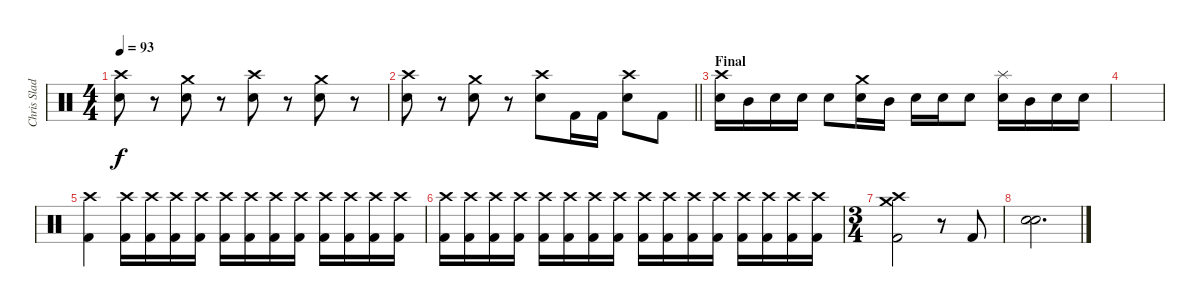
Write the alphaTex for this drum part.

\track ("Chris Slade" "Chris Slad") {instrument percussion}
\staff {score}
\articulation defaults
\ts (4 4)
\tempo 93
\clef neutral
\ks c
("Crash high (hit)" "Snare (hit) 2").8{dy f} r.8 ("Crash medium (hit)" "Snare (hit) 2").8 r.8 ("Crash high (hit)" "Snare (hit) 2").8 r.8 ("Crash medium (hit)" "Snare (hit) 2").8 r.8 |
\barLineRight lightlight
("Crash high (hit)" "Snare (hit) 2").8 r.8 ("Crash medium (hit)" "Snare (hit) 2").8 r.8 ("Crash high (hit)" "Snare (hit) 2").8 "Kick (hit) 2".16 "Kick (hit) 2".16 ("Crash high (hit)" "Snare (hit) 2").8 "Kick (hit) 2".8 |
\section ("" "Final")
("Crash high (hit)" "Snare (hit) 2").16 "Mid Tom (hit)".16 "Snare (hit) 2".16 "Snare (hit) 2".16 "Snare (hit) 2".8 ("Crash medium (hit)" "Snare (hit) 2").16 "Mid Tom (hit)".16 "Snare (hit) 2".16 "Snare (hit) 2".16 "Snare (hit) 2".8 ("Splash (hit)" "Snare (hit) 2").16 "Mid Tom (hit)".16 "Snare (hit) 2".16 "Snare (hit) 2".16 |
|
("Kick (hit) 2" "Crash high (hit)").4 ("Kick (hit) 2" "Crash high (hit)").16 ("Kick (hit) 2" "Crash high (hit)").16 ("Kick (hit) 2" "Crash high (hit)").16 ("Kick (hit) 2" "Crash high (hit)").16 ("Kick (hit) 2" "Crash high (hit)").16 ("Kick (hit) 2" "Crash high (hit)").16 ("Kick (hit) 2" "Crash high (hit)").16 ("Kick (hit) 2" "Crash high (hit)").16 ("Kick (hit) 2" "Crash high (hit)").16 ("Kick (hit) 2" "Crash high (hit)").16 ("Kick (hit) 2" "Crash high (hit)").16 ("Kick (hit) 2" "Crash high (hit)").16 |
("Kick (hit) 2" "Crash high (hit)").16 ("Kick (hit) 2" "Crash high (hit)").16 ("Kick (hit) 2" "Crash high (hit)").16 ("Kick (hit) 2" "Crash high (hit)").16 ("Kick (hit) 2" "Crash high (hit)").16 ("Kick (hit) 2" "Crash high (hit)").16 ("Kick (hit) 2" "Crash high (hit)").16 ("Kick (hit) 2" "Crash high (hit)").16 ("Kick (hit) 2" "Crash high (hit)").16 ("Kick (hit) 2" "Crash high (hit)").16 ("Kick (hit) 2" "Crash high (hit)").16 ("Kick (hit) 2" "Crash high (hit)").16 ("Kick (hit) 2" "Crash high (hit)").16 ("Kick (hit) 2" "Crash high (hit)").16 ("Kick (hit) 2" "Crash high (hit)").16 ("Kick (hit) 2" "Crash high (hit)").16 |
\ts (3 4)
("Kick (hit) 2" "Crash high (hit)" "Crash medium (hit)").2 r.8 "Kick (hit) 2".8 |
("Snare (hit) 2" "Snare (hit) 2").2{d bd 60}
